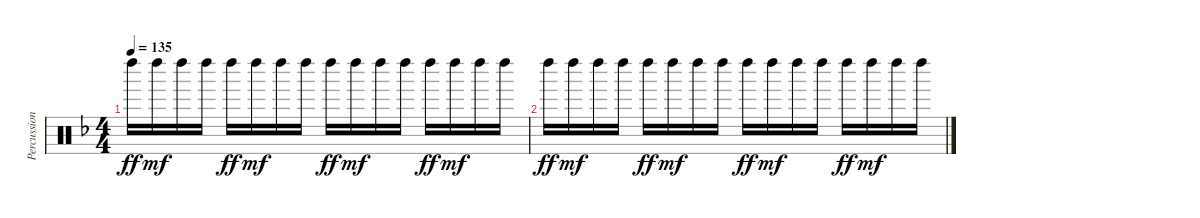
\track ("Percussions" "Percussion") {instrument percussion}
\staff {score}
\articulation defaults
\ts (4 4)
\tempo 135
\clef neutral
\ks f "Left Maraca (hit)".16{dy ff} "Left Maraca (hit)".16{dy mf} "Left Maraca (hit)".16 "Left Maraca (hit)".16 "Left Maraca (hit)".16{dy ff} "Left Maraca (hit)".16{dy mf} "Left Maraca (hit)".16 "Left Maraca (hit)".16 "Left Maraca (hit)".16{dy ff} "Left Maraca (hit)".16{dy mf} "Left Maraca (hit)".16 "Left Maraca (hit)".16 "Left Maraca (hit)".16{dy ff} "Left Maraca (hit)".16{dy mf} "Left Maraca (hit)".16 "Left Maraca (hit)".16
|
"Left Maraca (hit)".16{dy ff} "Left Maraca (hit)".16{dy mf} "Left Maraca (hit)".16 "Left Maraca (hit)".16 "Left Maraca (hit)".16{dy ff} "Left Maraca (hit)".16{dy mf} "Left Maraca (hit)".16 "Left Maraca (hit)".16 "Left Maraca (hit)".16{dy ff} "Left Maraca (hit)".16{dy mf} "Left Maraca (hit)".16 "Left Maraca (hit)".16 "Left Maraca (hit)".16{dy ff} "Left Maraca (hit)".16{dy mf} "Left Maraca (hit)".16 "Left Maraca (hit)".16
